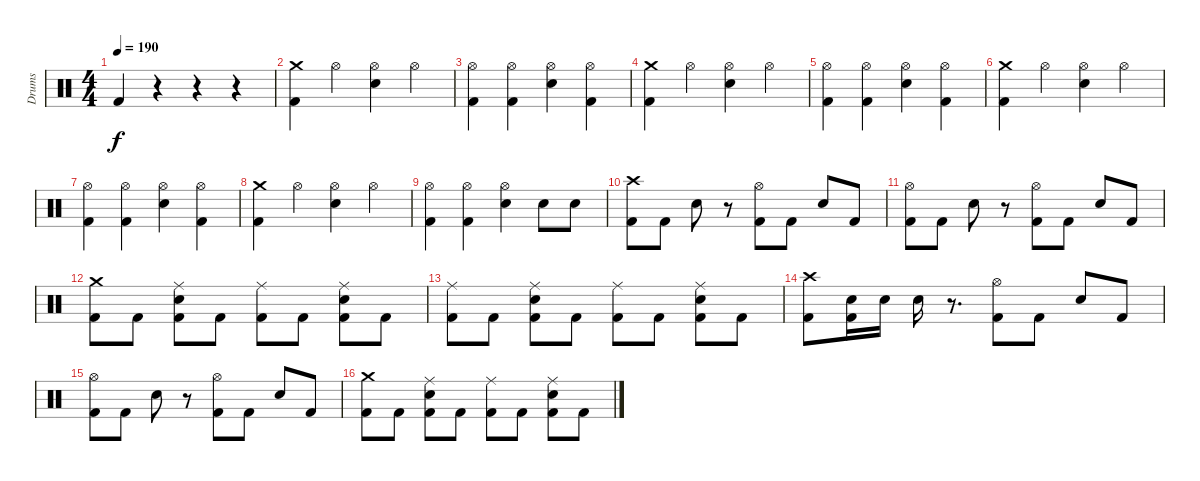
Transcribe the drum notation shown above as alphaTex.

\track ("Drums" "Drums") {instrument percussion}
\staff {score}
\articulation defaults
\ts (4 4)
\tempo 190
\clef neutral
\ks c "Kick (hit) 2".4{dy f}
r.4 r.4 r.4 |
("Crash medium (hit)" "Kick (hit) 2").4 "Hi-Hat (open)".4 ("Hi-Hat (open)" "Electric Snare (hit)").4 "Hi-Hat (open)".4 |
("Hi-Hat (open)" "Kick (hit) 2").4 ("Hi-Hat (open)" "Kick (hit) 2").4 ("Hi-Hat (open)" "Electric Snare (hit)").4 ("Hi-Hat (open)" "Kick (hit) 2").4 |
("Crash medium (hit)" "Kick (hit) 2").4 "Hi-Hat (open)".4 ("Hi-Hat (open)" "Electric Snare (hit)").4 "Hi-Hat (open)".4 |
("Hi-Hat (open)" "Kick (hit) 2").4 ("Hi-Hat (open)" "Kick (hit) 2").4 ("Hi-Hat (open)" "Electric Snare (hit)").4 ("Hi-Hat (open)" "Kick (hit) 2").4 |
("Crash medium (hit)" "Kick (hit) 2").4 "Hi-Hat (open)".4 ("Hi-Hat (open)" "Electric Snare (hit)").4 "Hi-Hat (open)".4 |
("Hi-Hat (open)" "Kick (hit) 2").4 ("Hi-Hat (open)" "Kick (hit) 2").4 ("Hi-Hat (open)" "Electric Snare (hit)").4 ("Hi-Hat (open)" "Kick (hit) 2").4 |
("Crash medium (hit)" "Kick (hit) 2").4 "Hi-Hat (open)".4 ("Hi-Hat (open)" "Electric Snare (hit)").4 "Hi-Hat (open)".4 |
("Hi-Hat (open)" "Kick (hit) 2").4 ("Hi-Hat (open)" "Kick (hit) 2").4 ("Hi-Hat (open)" "Electric Snare (hit)").4 "Electric Snare (hit)".8 "Electric Snare (hit)".8 |
("Crash high (hit)" "Kick (hit) 2").8 "Kick (hit) 2".8 "Electric Snare (hit)".8 r.8 ("Hi-Hat (open)" "Kick (hit) 2").8 "Kick (hit) 2".8 "Electric Snare (hit)".8 "Kick (hit) 2".8 |
("Hi-Hat (open)" "Kick (hit) 2").8 "Kick (hit) 2".8 "Electric Snare (hit)".8 r.8 ("Hi-Hat (open)" "Kick (hit) 2").8 "Kick (hit) 2".8 "Electric Snare (hit)".8 "Kick (hit) 2".8 |
("Crash medium (hit)" "Kick (hit) 2").8 "Kick (hit) 2".8 ("Ride (middle)" "Electric Snare (hit)" "Kick (hit) 2").8 "Kick (hit) 2".8 ("Ride (middle)" "Kick (hit) 2").8 "Kick (hit) 2".8 ("Ride (middle)" "Electric Snare (hit)" "Kick (hit) 2").8 "Kick (hit) 2".8 |
("Ride (middle)" "Kick (hit) 2").8 "Kick (hit) 2".8 ("Ride (middle)" "Electric Snare (hit)" "Kick (hit) 2").8 "Kick (hit) 2".8 ("Ride (middle)" "Kick (hit) 2").8 "Kick (hit) 2".8 ("Ride (middle)" "Electric Snare (hit)" "Kick (hit) 2").8 "Kick (hit) 2".8 |
("Crash high (hit)" "Kick (hit) 2").8 ("Electric Snare (hit)" "Kick (hit) 2").16 "Electric Snare (hit)".16 "Electric Snare (hit)".16 r.8{d} ("Hi-Hat (open)" "Kick (hit) 2").8 "Kick (hit) 2".8 "Electric Snare (hit)".8 "Kick (hit) 2".8 |
("Hi-Hat (open)" "Kick (hit) 2").8 "Kick (hit) 2".8 "Electric Snare (hit)".8 r.8 ("Hi-Hat (open)" "Kick (hit) 2").8 "Kick (hit) 2".8 "Electric Snare (hit)".8 "Kick (hit) 2".8 |
("Crash medium (hit)" "Kick (hit) 2").8 "Kick (hit) 2".8 ("Ride (middle)" "Electric Snare (hit)" "Kick (hit) 2").8 "Kick (hit) 2".8 ("Ride (middle)" "Kick (hit) 2").8 "Kick (hit) 2".8 ("Ride (middle)" "Electric Snare (hit)" "Kick (hit) 2").8 "Kick (hit) 2".8
